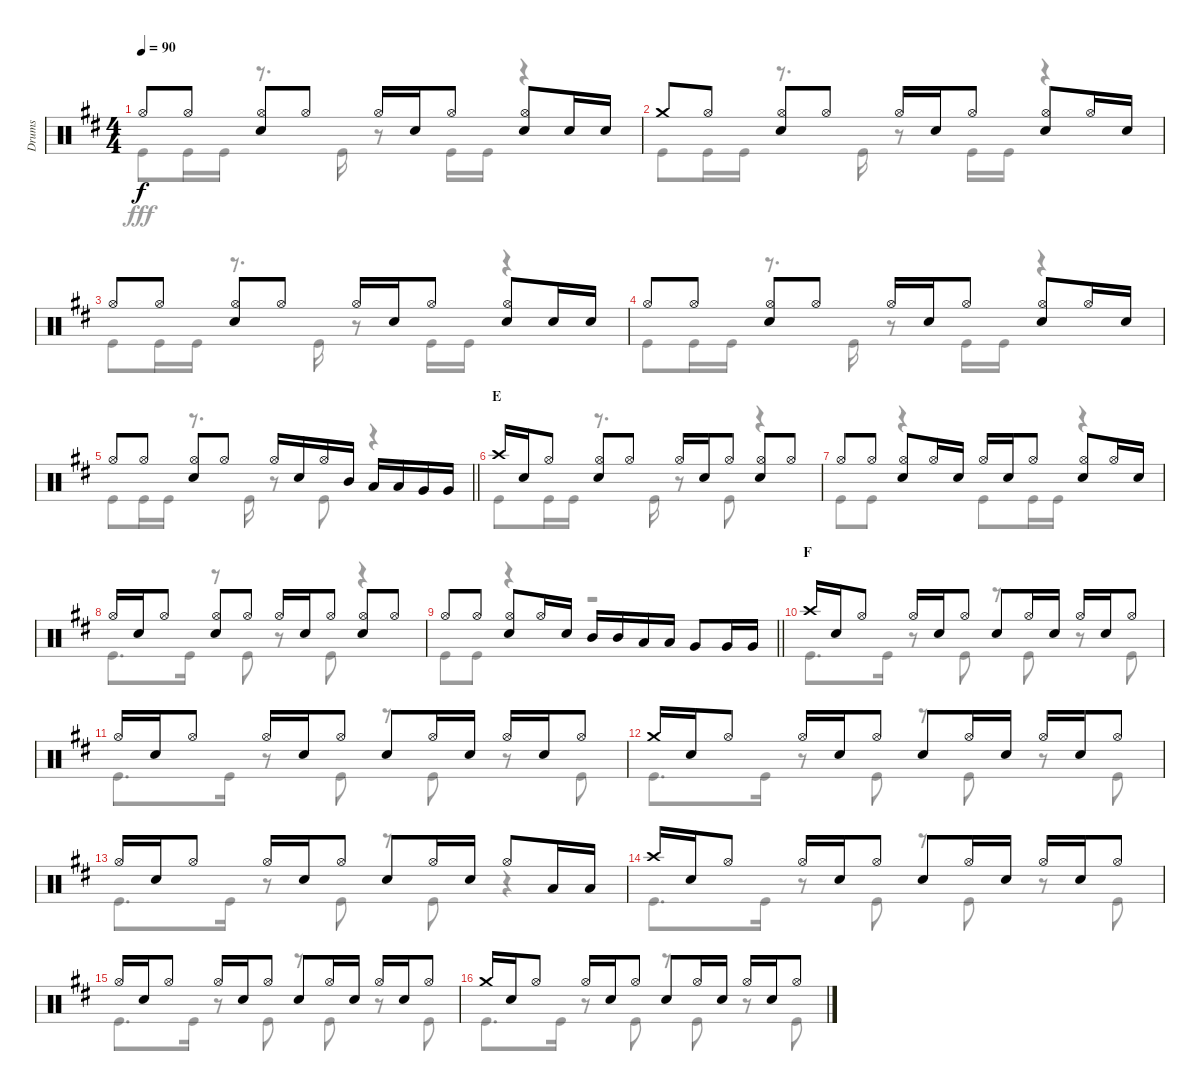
\track ("Drums" "Drums") {instrument percussion}
\staff {score}
\articulation defaults
\voice
\ts (4 4)
\tempo 90
\clef neutral
\ks d "Hi-Hat (open)".8{dy f} "Hi-Hat (open)".8
("Hi-Hat (open)" "Snare (hit) 2").8 "Hi-Hat (open)".8 "Hi-Hat (open)".16 "Snare (hit) 2".16 "Hi-Hat (open)".8 ("Hi-Hat (open)" "Snare (hit) 2").8 "Snare (hit) 2".16 "Snare (hit) 2".16 |
"Crash medium (hit)".8 "Hi-Hat (open)".8 ("Hi-Hat (open)" "Snare (hit) 2").8 "Hi-Hat (open)".8 "Hi-Hat (open)".16 "Snare (hit) 2".16 "Hi-Hat (open)".8 ("Hi-Hat (open)" "Snare (hit) 2").8 "Hi-Hat (open)".16 "Snare (hit) 2".16 |
"Hi-Hat (open)".8 "Hi-Hat (open)".8 ("Hi-Hat (open)" "Snare (hit) 2").8 "Hi-Hat (open)".8 "Hi-Hat (open)".16 "Snare (hit) 2".16 "Hi-Hat (open)".8 ("Hi-Hat (open)" "Snare (hit) 2").8 "Snare (hit) 2".16 "Snare (hit) 2".16 |
"Hi-Hat (open)".8 "Hi-Hat (open)".8 ("Hi-Hat (open)" "Snare (hit) 2").8 "Hi-Hat (open)".8 "Hi-Hat (open)".16 "Snare (hit) 2".16 "Hi-Hat (open)".8 ("Hi-Hat (open)" "Snare (hit) 2").8 "Hi-Hat (open)".16 "Snare (hit) 2".16 |
\barLineRight lightlight "Hi-Hat (open)".8 "Hi-Hat (open)".8
("Hi-Hat (open)" "Snare (hit) 2").8 "Hi-Hat (open)".8 "Hi-Hat (open)".16 "Snare (hit) 2".16 "Hi-Hat (open)".16 "Mid Tom (hit)".16 "Low Tom (hit)".16 "Low Tom (hit)".16 "Very Low Tom (hit)".16 "Very Low Tom (hit)".16 |
\section ("" "E")
"Crash high (hit)".16 "Snare (hit) 2".16 "Hi-Hat (open)".8 ("Hi-Hat (open)" "Snare (hit) 2").8 "Hi-Hat (open)".8 "Hi-Hat (open)".16 "Snare (hit) 2".16 "Hi-Hat (open)".8 ("Hi-Hat (open)" "Snare (hit) 2").8 "Hi-Hat (open)".8 |
"Hi-Hat (open)".8 "Hi-Hat (open)".8 ("Hi-Hat (open)" "Snare (hit) 2").8 "Hi-Hat (open)".16 "Snare (hit) 2".16 "Hi-Hat (open)".16 "Snare (hit) 2".16 "Hi-Hat (open)".8 ("Hi-Hat (open)" "Snare (hit) 2").8 "Hi-Hat (open)".16 "Snare (hit) 2".16 |
"Hi-Hat (open)".16 "Snare (hit) 2".16 "Hi-Hat (open)".8 ("Hi-Hat (open)" "Snare (hit) 2").8 "Hi-Hat (open)".8 "Hi-Hat (open)".16 "Snare (hit) 2".16 "Hi-Hat (open)".8 ("Hi-Hat (open)" "Snare (hit) 2").8 "Hi-Hat (open)".8 |
\barLineRight lightlight "Hi-Hat (open)".8 "Hi-Hat (open)".8
("Hi-Hat (open)" "Snare (hit) 2").8 "Hi-Hat (open)".16 "Snare (hit) 2".16 "Mid Tom (hit)".16 "Mid Tom (hit)".16 "Low Tom (hit)".16 "Low Tom (hit)".16 "Very Low Tom (hit)".8 "Very Low Tom (hit)".16 "Very Low Tom (hit)".16 |
\section ("" "F")
"Crash high (hit)".16 "Snare (hit) 2".16 "Hi-Hat (open)".8 "Hi-Hat (open)".16 "Snare (hit) 2".16 "Hi-Hat (open)".8 "Snare (hit) 2".8 "Hi-Hat (open)".16 "Snare (hit) 2".16 "Hi-Hat (open)".16 "Snare (hit) 2".16 "Hi-Hat (open)".8 |
"Hi-Hat (open)".16 "Snare (hit) 2".16 "Hi-Hat (open)".8 "Hi-Hat (open)".16 "Snare (hit) 2".16 "Hi-Hat (open)".8 "Snare (hit) 2".8 "Hi-Hat (open)".16 "Snare (hit) 2".16 "Hi-Hat (open)".16 "Snare (hit) 2".16 "Hi-Hat (open)".8 |
"Crash medium (hit)".16 "Snare (hit) 2".16 "Hi-Hat (open)".8 "Hi-Hat (open)".16 "Snare (hit) 2".16 "Hi-Hat (open)".8 "Snare (hit) 2".8 "Hi-Hat (open)".16 "Snare (hit) 2".16 "Hi-Hat (open)".16 "Snare (hit) 2".16 "Hi-Hat (open)".8 |
"Hi-Hat (open)".16 "Snare (hit) 2".16 "Hi-Hat (open)".8 "Hi-Hat (open)".16 "Snare (hit) 2".16 "Hi-Hat (open)".8 "Snare (hit) 2".8 "Hi-Hat (open)".16 "Snare (hit) 2".16 "Hi-Hat (open)".8 "Low Tom (hit)".16 "Low Tom (hit)".16 |
"Crash high (hit)".16 "Snare (hit) 2".16 "Hi-Hat (open)".8 "Hi-Hat (open)".16 "Snare (hit) 2".16 "Hi-Hat (open)".8 "Snare (hit) 2".8 "Hi-Hat (open)".16 "Snare (hit) 2".16 "Hi-Hat (open)".16 "Snare (hit) 2".16 "Hi-Hat (open)".8 |
"Hi-Hat (open)".16 "Snare (hit) 2".16 "Hi-Hat (open)".8 "Hi-Hat (open)".16 "Snare (hit) 2".16 "Hi-Hat (open)".8 "Snare (hit) 2".8 "Hi-Hat (open)".16 "Snare (hit) 2".16 "Hi-Hat (open)".16 "Snare (hit) 2".16 "Hi-Hat (open)".8 |
"Crash medium (hit)".16 "Snare (hit) 2".16 "Hi-Hat (open)".8 "Hi-Hat (open)".16 "Snare (hit) 2".16 "Hi-Hat (open)".8 "Snare (hit) 2".8 "Hi-Hat (open)".16 "Snare (hit) 2".16 "Hi-Hat (open)".16 "Snare (hit) 2".16 "Hi-Hat (open)".8
\voice
\clef neutral
\ottava regular
\simile none
\ks d "Kick (hit)".8{dy fff} "Kick (hit)".16 "Kick (hit)".16
r.8{d} "Kick (hit)".16 r.8 "Kick (hit)".16 "Kick (hit)".16 r.4 |
"Kick (hit)".8 "Kick (hit)".16 "Kick (hit)".16 r.8{d} "Kick (hit)".16 r.8 "Kick (hit)".16 "Kick (hit)".16 r.4 |
"Kick (hit)".8 "Kick (hit)".16 "Kick (hit)".16 r.8{d} "Kick (hit)".16 r.8 "Kick (hit)".16 "Kick (hit)".16 r.4 |
"Kick (hit)".8 "Kick (hit)".16 "Kick (hit)".16 r.8{d} "Kick (hit)".16 r.8 "Kick (hit)".16 "Kick (hit)".16 r.4 |
\barLineRight lightlight "Kick (hit)".8 "Kick (hit)".16 "Kick (hit)".16
r.8{d} "Kick (hit)".16 r.8 "Kick (hit)".8 r.4 |
"Kick (hit)".8 "Kick (hit)".16 "Kick (hit)".16 r.8{d} "Kick (hit)".16 r.8 "Kick (hit)".8 r.4 |
"Kick (hit)".8 "Kick (hit)".8 r.4 "Kick (hit)".8 "Kick (hit)".16 "Kick (hit)".16 r.4 |
"Kick (hit)".8{d} "Kick (hit)".16 r.8 "Kick (hit)".8 r.8 "Kick (hit)".8 r.4 |
\barLineRight lightlight "Kick (hit)".8 "Kick (hit)".8
r.4 r.2 |
"Kick (hit)".8{d} "Kick (hit)".16 r.8 "Kick (hit)".8 r.8 "Kick (hit)".8 r.8 "Kick (hit)".8 |
"Kick (hit)".8{d} "Kick (hit)".16 r.8 "Kick (hit)".8 r.8 "Kick (hit)".8 r.8 "Kick (hit)".8 |
"Kick (hit)".8{d} "Kick (hit)".16 r.8 "Kick (hit)".8 r.8 "Kick (hit)".8 r.8 "Kick (hit)".8 |
"Kick (hit)".8{d} "Kick (hit)".16 r.8 "Kick (hit)".8 r.8 "Kick (hit)".8 r.4 |
"Kick (hit)".8{d} "Kick (hit)".16 r.8 "Kick (hit)".8 r.8 "Kick (hit)".8 r.8 "Kick (hit)".8 |
"Kick (hit)".8{d} "Kick (hit)".16 r.8 "Kick (hit)".8 r.8 "Kick (hit)".8 r.8 "Kick (hit)".8 |
"Kick (hit)".8{d} "Kick (hit)".16 r.8 "Kick (hit)".8 r.8 "Kick (hit)".8 r.8 "Kick (hit)".8
